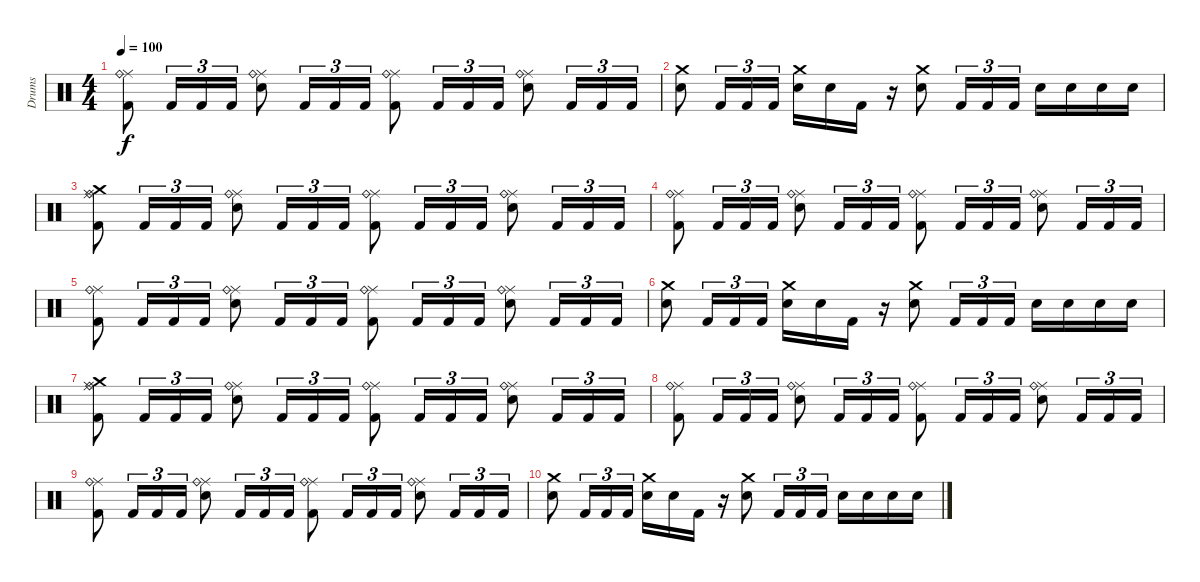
\track ("Drums" "Drums") {instrument percussion}
\staff {score}
\articulation defaults
\ts (4 4)
\tempo 100
\clef neutral
\ks c
("Kick (hit) 2" "Ride (middle)" "Ride (bell)").8{dy f} "Kick (hit) 2".16{tu (3 2)} "Kick (hit) 2".16{tu (3 2)} "Kick (hit) 2".16{tu (3 2)} ("Snare (hit) 2" "Ride (middle)" "Ride (bell)").8 "Kick (hit) 2".16{tu (3 2)} "Kick (hit) 2".16{tu (3 2)} "Kick (hit) 2".16{tu (3 2)} ("Kick (hit) 2" "Ride (middle)" "Ride (bell)").8 "Kick (hit) 2".16{tu (3 2)} "Kick (hit) 2".16{tu (3 2)} "Kick (hit) 2".16{tu (3 2)} ("Snare (hit) 2" "Ride (middle)" "Ride (bell)").8 "Kick (hit) 2".16{tu (3 2)} "Kick (hit) 2".16{tu (3 2)} "Kick (hit) 2".16{tu (3 2)} |
("Snare (hit) 2" "Crash medium (hit)").8 "Kick (hit) 2".16{tu (3 2)} "Kick (hit) 2".16{tu (3 2)} "Kick (hit) 2".16{tu (3 2)} ("Snare (hit) 2" "Crash medium (hit)").16 "Snare (hit) 2".16 "Kick (hit) 2".16 r.16 ("Snare (hit) 2" "Crash medium (hit)").8 "Kick (hit) 2".16{tu (3 2)} "Kick (hit) 2".16{tu (3 2)} "Kick (hit) 2".16{tu (3 2)} "Snare (hit) 2".16 "Snare (hit) 2".16 "Snare (hit) 2".16 "Snare (hit) 2".16 |
("Kick (hit) 2" "Crash medium (hit)" "Ride (middle)" "Ride (bell)").8 "Kick (hit) 2".16{tu (3 2)} "Kick (hit) 2".16{tu (3 2)} "Kick (hit) 2".16{tu (3 2)} ("Snare (hit) 2" "Ride (middle)" "Ride (bell)").8 "Kick (hit) 2".16{tu (3 2)} "Kick (hit) 2".16{tu (3 2)} "Kick (hit) 2".16{tu (3 2)} ("Kick (hit) 2" "Ride (middle)" "Ride (bell)").8 "Kick (hit) 2".16{tu (3 2)} "Kick (hit) 2".16{tu (3 2)} "Kick (hit) 2".16{tu (3 2)} ("Snare (hit) 2" "Ride (middle)" "Ride (bell)").8 "Kick (hit) 2".16{tu (3 2)} "Kick (hit) 2".16{tu (3 2)} "Kick (hit) 2".16{tu (3 2)} |
("Kick (hit) 2" "Ride (middle)" "Ride (bell)").8 "Kick (hit) 2".16{tu (3 2)} "Kick (hit) 2".16{tu (3 2)} "Kick (hit) 2".16{tu (3 2)} ("Snare (hit) 2" "Ride (middle)" "Ride (bell)").8 "Kick (hit) 2".16{tu (3 2)} "Kick (hit) 2".16{tu (3 2)} "Kick (hit) 2".16{tu (3 2)} ("Kick (hit) 2" "Ride (middle)" "Ride (bell)").8 "Kick (hit) 2".16{tu (3 2)} "Kick (hit) 2".16{tu (3 2)} "Kick (hit) 2".16{tu (3 2)} ("Snare (hit) 2" "Ride (middle)" "Ride (bell)").8 "Kick (hit) 2".16{tu (3 2)} "Kick (hit) 2".16{tu (3 2)} "Kick (hit) 2".16{tu (3 2)} |
("Kick (hit) 2" "Ride (middle)" "Ride (bell)").8 "Kick (hit) 2".16{tu (3 2)} "Kick (hit) 2".16{tu (3 2)} "Kick (hit) 2".16{tu (3 2)} ("Snare (hit) 2" "Ride (middle)" "Ride (bell)").8 "Kick (hit) 2".16{tu (3 2)} "Kick (hit) 2".16{tu (3 2)} "Kick (hit) 2".16{tu (3 2)} ("Kick (hit) 2" "Ride (middle)" "Ride (bell)").8 "Kick (hit) 2".16{tu (3 2)} "Kick (hit) 2".16{tu (3 2)} "Kick (hit) 2".16{tu (3 2)} ("Snare (hit) 2" "Ride (middle)" "Ride (bell)").8 "Kick (hit) 2".16{tu (3 2)} "Kick (hit) 2".16{tu (3 2)} "Kick (hit) 2".16{tu (3 2)} |
("Snare (hit) 2" "Crash medium (hit)").8 "Kick (hit) 2".16{tu (3 2)} "Kick (hit) 2".16{tu (3 2)} "Kick (hit) 2".16{tu (3 2)} ("Snare (hit) 2" "Crash medium (hit)").16 "Snare (hit) 2".16 "Kick (hit) 2".16 r.16 ("Snare (hit) 2" "Crash medium (hit)").8 "Kick (hit) 2".16{tu (3 2)} "Kick (hit) 2".16{tu (3 2)} "Kick (hit) 2".16{tu (3 2)} "Snare (hit) 2".16 "Snare (hit) 2".16 "Snare (hit) 2".16 "Snare (hit) 2".16 |
("Kick (hit) 2" "Crash medium (hit)" "Ride (middle)" "Ride (bell)").8 "Kick (hit) 2".16{tu (3 2)} "Kick (hit) 2".16{tu (3 2)} "Kick (hit) 2".16{tu (3 2)} ("Snare (hit) 2" "Ride (middle)" "Ride (bell)").8 "Kick (hit) 2".16{tu (3 2)} "Kick (hit) 2".16{tu (3 2)} "Kick (hit) 2".16{tu (3 2)} ("Kick (hit) 2" "Ride (middle)" "Ride (bell)").8 "Kick (hit) 2".16{tu (3 2)} "Kick (hit) 2".16{tu (3 2)} "Kick (hit) 2".16{tu (3 2)} ("Snare (hit) 2" "Ride (middle)" "Ride (bell)").8 "Kick (hit) 2".16{tu (3 2)} "Kick (hit) 2".16{tu (3 2)} "Kick (hit) 2".16{tu (3 2)} |
("Kick (hit) 2" "Ride (middle)" "Ride (bell)").8 "Kick (hit) 2".16{tu (3 2)} "Kick (hit) 2".16{tu (3 2)} "Kick (hit) 2".16{tu (3 2)} ("Snare (hit) 2" "Ride (middle)" "Ride (bell)").8 "Kick (hit) 2".16{tu (3 2)} "Kick (hit) 2".16{tu (3 2)} "Kick (hit) 2".16{tu (3 2)} ("Kick (hit) 2" "Ride (middle)" "Ride (bell)").8 "Kick (hit) 2".16{tu (3 2)} "Kick (hit) 2".16{tu (3 2)} "Kick (hit) 2".16{tu (3 2)} ("Snare (hit) 2" "Ride (middle)" "Ride (bell)").8 "Kick (hit) 2".16{tu (3 2)} "Kick (hit) 2".16{tu (3 2)} "Kick (hit) 2".16{tu (3 2)} |
("Kick (hit) 2" "Ride (middle)" "Ride (bell)").8 "Kick (hit) 2".16{tu (3 2)} "Kick (hit) 2".16{tu (3 2)} "Kick (hit) 2".16{tu (3 2)} ("Snare (hit) 2" "Ride (middle)" "Ride (bell)").8 "Kick (hit) 2".16{tu (3 2)} "Kick (hit) 2".16{tu (3 2)} "Kick (hit) 2".16{tu (3 2)} ("Kick (hit) 2" "Ride (middle)" "Ride (bell)").8 "Kick (hit) 2".16{tu (3 2)} "Kick (hit) 2".16{tu (3 2)} "Kick (hit) 2".16{tu (3 2)} ("Snare (hit) 2" "Ride (middle)" "Ride (bell)").8 "Kick (hit) 2".16{tu (3 2)} "Kick (hit) 2".16{tu (3 2)} "Kick (hit) 2".16{tu (3 2)} |
("Snare (hit) 2" "Crash medium (hit)").8 "Kick (hit) 2".16{tu (3 2)} "Kick (hit) 2".16{tu (3 2)} "Kick (hit) 2".16{tu (3 2)} ("Snare (hit) 2" "Crash medium (hit)").16 "Snare (hit) 2".16 "Kick (hit) 2".16 r.16 ("Snare (hit) 2" "Crash medium (hit)").8 "Kick (hit) 2".16{tu (3 2)} "Kick (hit) 2".16{tu (3 2)} "Kick (hit) 2".16{tu (3 2)} "Snare (hit) 2".16 "Snare (hit) 2".16 "Snare (hit) 2".16 "Snare (hit) 2".16
